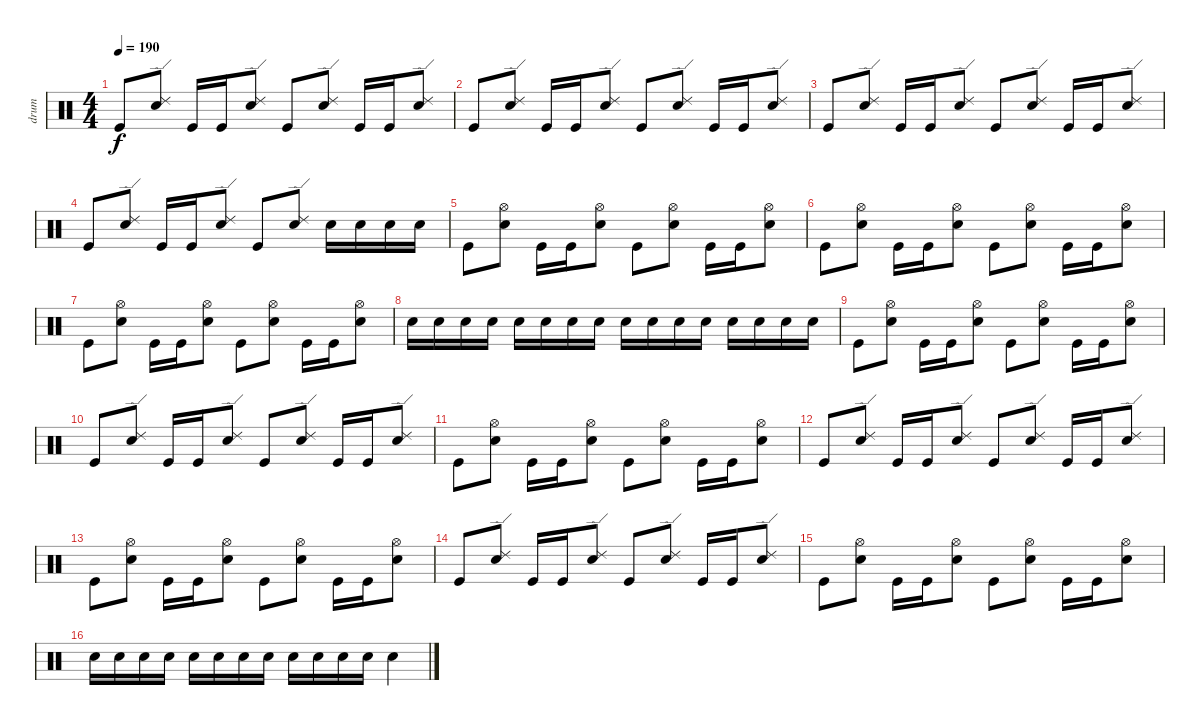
\track ("drum" "drum") {instrument percussion}
\staff {score}
\articulation defaults
\ts (4 4)
\tempo 190
\clef neutral
\ks c "Kick (hit)".8{dy f}
("Ride (edge) 2" "Snare (hit) 2").8 "Kick (hit)".16 "Kick (hit)".16 ("Ride (edge) 2" "Snare (hit) 2").8 "Kick (hit)".8 ("Ride (edge) 2" "Snare (hit) 2").8 "Kick (hit)".16 "Kick (hit)".16 ("Ride (edge) 2" "Snare (hit) 2").8 |
"Kick (hit)".8 ("Ride (edge) 2" "Snare (hit) 2").8 "Kick (hit)".16 "Kick (hit)".16 ("Ride (edge) 2" "Snare (hit) 2").8 "Kick (hit)".8 ("Ride (edge) 2" "Snare (hit) 2").8 "Kick (hit)".16 "Kick (hit)".16 ("Ride (edge) 2" "Snare (hit) 2").8 |
"Kick (hit)".8 ("Ride (edge) 2" "Snare (hit) 2").8 "Kick (hit)".16 "Kick (hit)".16 ("Ride (edge) 2" "Snare (hit) 2").8 "Kick (hit)".8 ("Ride (edge) 2" "Snare (hit) 2").8 "Kick (hit)".16 "Kick (hit)".16 ("Ride (edge) 2" "Snare (hit) 2").8 |
"Kick (hit)".8 ("Ride (edge) 2" "Snare (hit) 2").8 "Kick (hit)".16 "Kick (hit)".16 ("Ride (edge) 2" "Snare (hit) 2").8 "Kick (hit)".8 ("Ride (edge) 2" "Snare (hit) 2").8 "Snare (hit) 2".16 "Snare (hit) 2".16 "Snare (hit) 2".16 "Snare (hit) 2".16 |
"Kick (hit)".8 ("Hi-Hat (open)" "Snare (hit) 2").8 "Kick (hit)".16 "Kick (hit)".16 ("Hi-Hat (open)" "Snare (hit) 2").8 "Kick (hit)".8 ("Hi-Hat (open)" "Snare (hit) 2").8 "Kick (hit)".16 "Kick (hit)".16 ("Hi-Hat (open)" "Snare (hit) 2").8 |
"Kick (hit)".8 ("Hi-Hat (open)" "Snare (hit) 2").8 "Kick (hit)".16 "Kick (hit)".16 ("Hi-Hat (open)" "Snare (hit) 2").8 "Kick (hit)".8 ("Hi-Hat (open)" "Snare (hit) 2").8 "Kick (hit)".16 "Kick (hit)".16 ("Hi-Hat (open)" "Snare (hit) 2").8 |
"Kick (hit)".8 ("Hi-Hat (open)" "Snare (hit) 2").8 "Kick (hit)".16 "Kick (hit)".16 ("Hi-Hat (open)" "Snare (hit) 2").8 "Kick (hit)".8 ("Hi-Hat (open)" "Snare (hit) 2").8 "Kick (hit)".16 "Kick (hit)".16 ("Hi-Hat (open)" "Snare (hit) 2").8 |
"Snare (hit) 2".16 "Snare (hit) 2".16 "Snare (hit) 2".16 "Snare (hit) 2".16 "Snare (hit) 2".16 "Snare (hit) 2".16 "Snare (hit) 2".16 "Snare (hit) 2".16 "Snare (hit) 2".16 "Snare (hit) 2".16 "Snare (hit) 2".16 "Snare (hit) 2".16 "Snare (hit) 2".16 "Snare (hit) 2".16 "Snare (hit) 2".16 "Snare (hit) 2".16 |
"Kick (hit)".8 ("Hi-Hat (open)" "Snare (hit) 2").8 "Kick (hit)".16 "Kick (hit)".16 ("Hi-Hat (open)" "Snare (hit) 2").8 "Kick (hit)".8 ("Hi-Hat (open)" "Snare (hit) 2").8 "Kick (hit)".16 "Kick (hit)".16 ("Hi-Hat (open)" "Snare (hit) 2").8 |
"Kick (hit)".8 ("Ride (edge) 2" "Snare (hit) 2").8 "Kick (hit)".16 "Kick (hit)".16 ("Ride (edge) 2" "Snare (hit) 2").8 "Kick (hit)".8 ("Ride (edge) 2" "Snare (hit) 2").8 "Kick (hit)".16 "Kick (hit)".16 ("Ride (edge) 2" "Snare (hit) 2").8 |
"Kick (hit)".8 ("Hi-Hat (open)" "Snare (hit) 2").8 "Kick (hit)".16 "Kick (hit)".16 ("Hi-Hat (open)" "Snare (hit) 2").8 "Kick (hit)".8 ("Hi-Hat (open)" "Snare (hit) 2").8 "Kick (hit)".16 "Kick (hit)".16 ("Hi-Hat (open)" "Snare (hit) 2").8 |
"Kick (hit)".8 ("Ride (edge) 2" "Snare (hit) 2").8 "Kick (hit)".16 "Kick (hit)".16 ("Ride (edge) 2" "Snare (hit) 2").8 "Kick (hit)".8 ("Ride (edge) 2" "Snare (hit) 2").8 "Kick (hit)".16 "Kick (hit)".16 ("Ride (edge) 2" "Snare (hit) 2").8 |
"Kick (hit)".8 ("Hi-Hat (open)" "Snare (hit) 2").8 "Kick (hit)".16 "Kick (hit)".16 ("Hi-Hat (open)" "Snare (hit) 2").8 "Kick (hit)".8 ("Hi-Hat (open)" "Snare (hit) 2").8 "Kick (hit)".16 "Kick (hit)".16 ("Hi-Hat (open)" "Snare (hit) 2").8 |
"Kick (hit)".8 ("Ride (edge) 2" "Snare (hit) 2").8 "Kick (hit)".16 "Kick (hit)".16 ("Ride (edge) 2" "Snare (hit) 2").8 "Kick (hit)".8 ("Ride (edge) 2" "Snare (hit) 2").8 "Kick (hit)".16 "Kick (hit)".16 ("Ride (edge) 2" "Snare (hit) 2").8 |
"Kick (hit)".8 ("Hi-Hat (open)" "Snare (hit) 2").8 "Kick (hit)".16 "Kick (hit)".16 ("Hi-Hat (open)" "Snare (hit) 2").8 "Kick (hit)".8 ("Hi-Hat (open)" "Snare (hit) 2").8 "Kick (hit)".16 "Kick (hit)".16 ("Hi-Hat (open)" "Snare (hit) 2").8 |
"Snare (hit) 2".16 "Snare (hit) 2".16 "Snare (hit) 2".16 "Snare (hit) 2".16 "Snare (hit) 2".16 "Snare (hit) 2".16 "Snare (hit) 2".16 "Snare (hit) 2".16 "Snare (hit) 2".16 "Snare (hit) 2".16 "Snare (hit) 2".16 "Snare (hit) 2".16 "Snare (hit) 2".4
